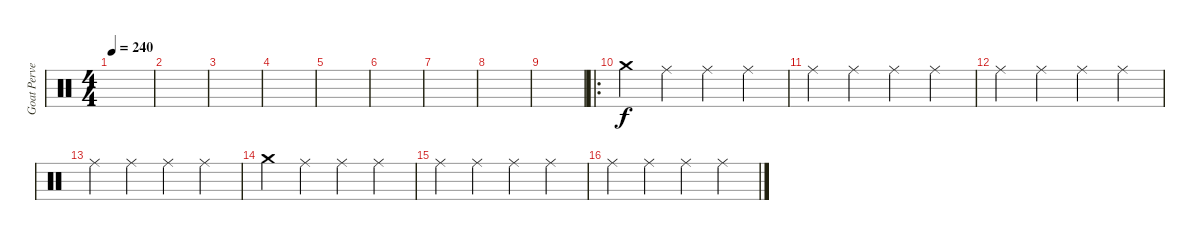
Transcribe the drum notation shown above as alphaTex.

\track ("Goat Pervertor2" "Goat Perve") {instrument percussion}
\staff {score}
\articulation defaults
\ts (4 4)
\tempo 240
\clef neutral
\ks c
|
|
|
|
|
|
|
|
|
\ro "Crash medium (hit)".4 "Ride (middle)".4 "Ride (middle)".4 "Ride (middle)".4
|
"Ride (middle)".4 "Ride (middle)".4 "Ride (middle)".4 "Ride (middle)".4 |
"Ride (middle)".4 "Ride (middle)".4 "Ride (middle)".4 "Ride (middle)".4 |
"Ride (middle)".4 "Ride (middle)".4 "Ride (middle)".4 "Ride (middle)".4 |
"Crash medium (hit)".4 "Ride (middle)".4 "Ride (middle)".4 "Ride (middle)".4 |
"Ride (middle)".4 "Ride (middle)".4 "Ride (middle)".4 "Ride (middle)".4 |
"Ride (middle)".4 "Ride (middle)".4 "Ride (middle)".4 "Ride (middle)".4
